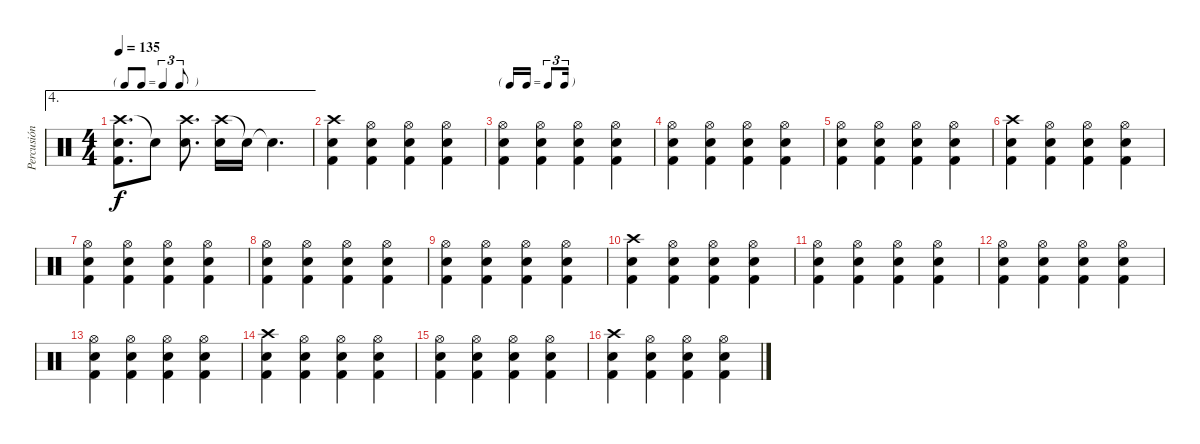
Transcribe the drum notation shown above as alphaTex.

\track ("Percusión" "Percusión") {instrument percussion}
\staff {score}
\articulation defaults
\ae 4
\ts (4 4)
\tf triplet8th
\tempo 135
\clef neutral
\ks c
("Crash high (hit)" "Kick (hit) 2" "Snare (hit) 2").8{d dy f} "Snare (hit)"{t}.8 ("Crash high (hit)" "Snare (hit) 2").8{d} ("Crash high (hit)" "Snare (hit) 2").16 "Snare (hit)"{t}.16 "Snare (hit)"{t}.4{d} |
("Crash high (hit)" "Kick (hit) 2" "Snare (hit) 2").4 ("Hi-Hat (open)" "Kick (hit) 2" "Snare (hit) 2").4 ("Hi-Hat (open)" "Kick (hit) 2" "Snare (hit) 2").4 ("Hi-Hat (open)" "Kick (hit) 2" "Snare (hit) 2").4 |
\tf triplet16th
("Hi-Hat (open)" "Kick (hit) 2" "Snare (hit) 2").4 ("Hi-Hat (open)" "Kick (hit) 2" "Snare (hit) 2").4 ("Hi-Hat (open)" "Kick (hit) 2" "Snare (hit) 2").4 ("Hi-Hat (open)" "Kick (hit) 2" "Snare (hit) 2").4 |
("Hi-Hat (open)" "Kick (hit) 2" "Snare (hit) 2").4 ("Hi-Hat (open)" "Kick (hit) 2" "Snare (hit) 2").4 ("Hi-Hat (open)" "Kick (hit) 2" "Snare (hit) 2").4 ("Hi-Hat (open)" "Kick (hit) 2" "Snare (hit) 2").4 |
("Hi-Hat (open)" "Kick (hit) 2" "Snare (hit) 2").4 ("Hi-Hat (open)" "Kick (hit) 2" "Snare (hit) 2").4 ("Hi-Hat (open)" "Kick (hit) 2" "Snare (hit) 2").4 ("Hi-Hat (open)" "Kick (hit) 2" "Snare (hit) 2").4 |
("Crash high (hit)" "Kick (hit) 2" "Snare (hit) 2").4 ("Hi-Hat (open)" "Kick (hit) 2" "Snare (hit) 2").4 ("Hi-Hat (open)" "Kick (hit) 2" "Snare (hit) 2").4 ("Hi-Hat (open)" "Kick (hit) 2" "Snare (hit) 2").4 |
("Hi-Hat (open)" "Kick (hit) 2" "Snare (hit) 2").4 ("Hi-Hat (open)" "Kick (hit) 2" "Snare (hit) 2").4 ("Hi-Hat (open)" "Kick (hit) 2" "Snare (hit) 2").4 ("Hi-Hat (open)" "Kick (hit) 2" "Snare (hit) 2").4 |
("Hi-Hat (open)" "Kick (hit) 2" "Snare (hit) 2").4 ("Hi-Hat (open)" "Kick (hit) 2" "Snare (hit) 2").4 ("Hi-Hat (open)" "Kick (hit) 2" "Snare (hit) 2").4 ("Hi-Hat (open)" "Kick (hit) 2" "Snare (hit) 2").4 |
("Hi-Hat (open)" "Kick (hit) 2" "Snare (hit) 2").4 ("Hi-Hat (open)" "Kick (hit) 2" "Snare (hit) 2").4 ("Hi-Hat (open)" "Kick (hit) 2" "Snare (hit) 2").4 ("Hi-Hat (open)" "Kick (hit) 2" "Snare (hit) 2").4 |
("Crash high (hit)" "Kick (hit) 2" "Snare (hit) 2").4 ("Hi-Hat (open)" "Kick (hit) 2" "Snare (hit) 2").4 ("Hi-Hat (open)" "Kick (hit) 2" "Snare (hit) 2").4 ("Hi-Hat (open)" "Kick (hit) 2" "Snare (hit) 2").4 |
("Hi-Hat (open)" "Kick (hit) 2" "Snare (hit) 2").4 ("Hi-Hat (open)" "Kick (hit) 2" "Snare (hit) 2").4 ("Hi-Hat (open)" "Kick (hit) 2" "Snare (hit) 2").4 ("Hi-Hat (open)" "Kick (hit) 2" "Snare (hit) 2").4 |
("Hi-Hat (open)" "Kick (hit) 2" "Snare (hit) 2").4 ("Hi-Hat (open)" "Kick (hit) 2" "Snare (hit) 2").4 ("Hi-Hat (open)" "Kick (hit) 2" "Snare (hit) 2").4 ("Hi-Hat (open)" "Kick (hit) 2" "Snare (hit) 2").4 |
("Hi-Hat (open)" "Kick (hit) 2" "Snare (hit) 2").4 ("Hi-Hat (open)" "Kick (hit) 2" "Snare (hit) 2").4 ("Hi-Hat (open)" "Kick (hit) 2" "Snare (hit) 2").4 ("Hi-Hat (open)" "Kick (hit) 2" "Snare (hit) 2").4 |
("Crash high (hit)" "Kick (hit) 2" "Snare (hit) 2").4 ("Hi-Hat (open)" "Kick (hit) 2" "Snare (hit) 2").4 ("Hi-Hat (open)" "Kick (hit) 2" "Snare (hit) 2").4 ("Hi-Hat (open)" "Kick (hit) 2" "Snare (hit) 2").4 |
("Hi-Hat (open)" "Kick (hit) 2" "Snare (hit) 2").4 ("Hi-Hat (open)" "Kick (hit) 2" "Snare (hit) 2").4 ("Hi-Hat (open)" "Kick (hit) 2" "Snare (hit) 2").4 ("Hi-Hat (open)" "Kick (hit) 2" "Snare (hit) 2").4 |
("Crash high (hit)" "Kick (hit) 2" "Snare (hit) 2").4 ("Hi-Hat (open)" "Kick (hit) 2" "Snare (hit) 2").4 ("Hi-Hat (open)" "Kick (hit) 2" "Snare (hit) 2").4 ("Hi-Hat (open)" "Kick (hit) 2" "Snare (hit) 2").4
